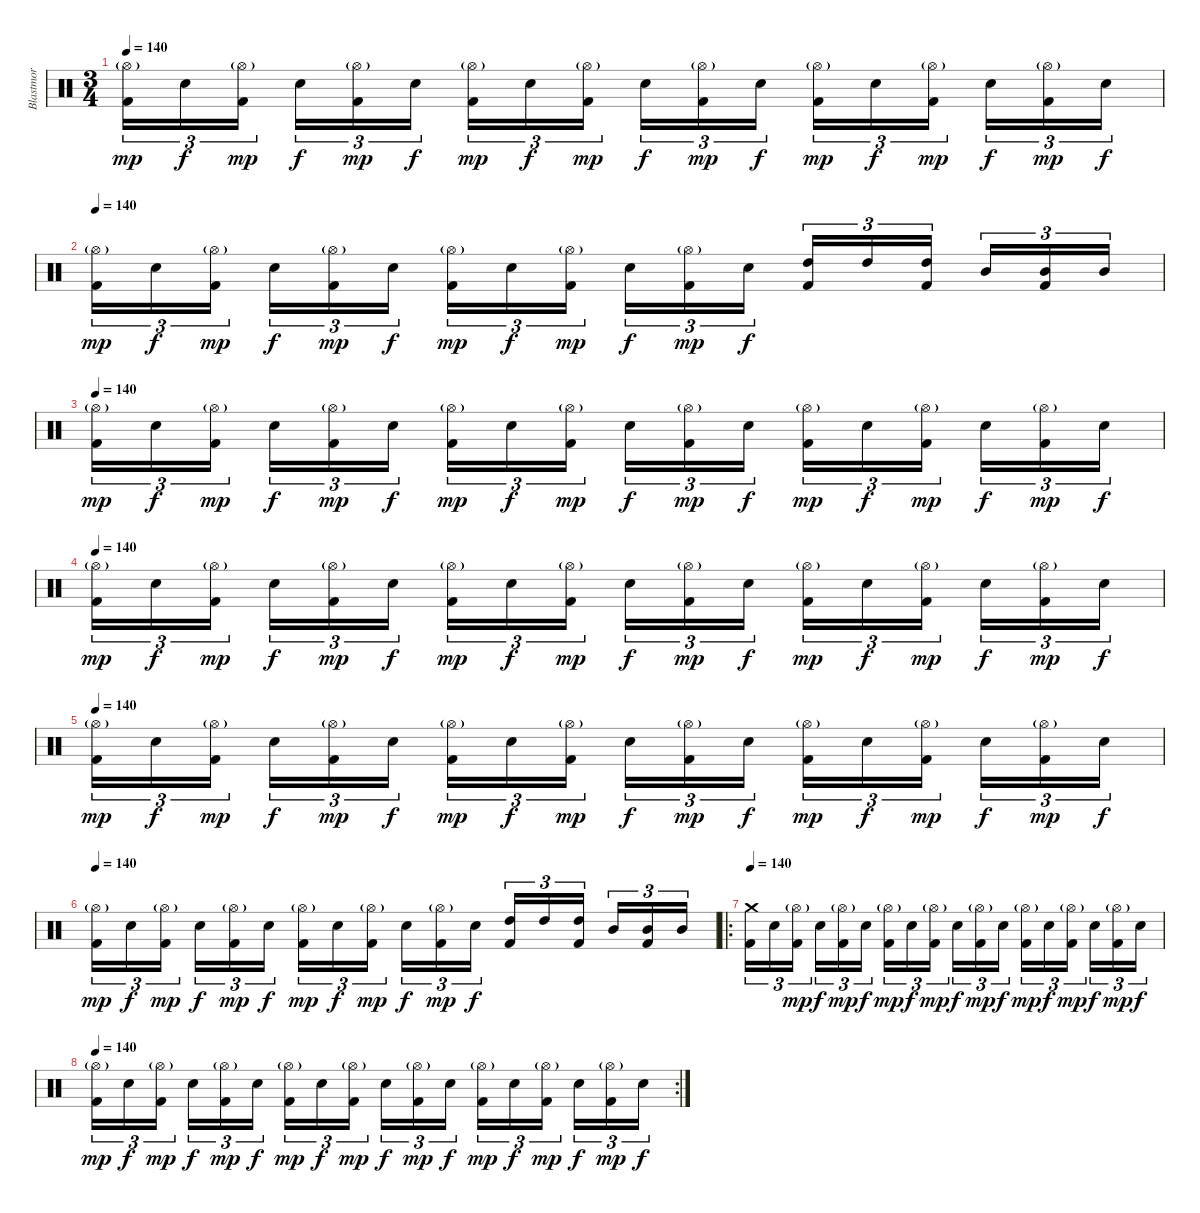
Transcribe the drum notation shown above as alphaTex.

\track ("Blastmor" "Blastmor") {instrument percussion}
\staff {score}
\articulation defaults
\ts (3 4)
\tempo 140
\clef neutral
\ks c
("Hi-Hat (open)"{g} "Kick (hit) 2").16{tu (3 2) dy mp} "Electric Snare (hit)".16{tu (3 2) dy f} ("Hi-Hat (open)"{g} "Kick (hit) 2").16{tu (3 2) dy mp} "Electric Snare (hit)".16{tu (3 2) dy f} ("Hi-Hat (open)"{g} "Kick (hit) 2").16{tu (3 2) dy mp} "Electric Snare (hit)".16{tu (3 2) dy f} ("Hi-Hat (open)"{g} "Kick (hit) 2").16{tu (3 2) dy mp} "Electric Snare (hit)".16{tu (3 2) dy f} ("Hi-Hat (open)"{g} "Kick (hit) 2").16{tu (3 2) dy mp} "Electric Snare (hit)".16{tu (3 2) dy f} ("Hi-Hat (open)"{g} "Kick (hit) 2").16{tu (3 2) dy mp} "Electric Snare (hit)".16{tu (3 2) dy f} ("Hi-Hat (open)"{g} "Kick (hit) 2").16{tu (3 2) dy mp} "Electric Snare (hit)".16{tu (3 2) dy f} ("Hi-Hat (open)"{g} "Kick (hit) 2").16{tu (3 2) dy mp} "Electric Snare (hit)".16{tu (3 2) dy f} ("Hi-Hat (open)"{g} "Kick (hit) 2").16{tu (3 2) dy mp} "Electric Snare (hit)".16{tu (3 2) dy f} |
\tempo 140
("Hi-Hat (open)"{g} "Kick (hit) 2").16{tu (3 2) dy mp} "Electric Snare (hit)".16{tu (3 2) dy f} ("Hi-Hat (open)"{g} "Kick (hit) 2").16{tu (3 2) dy mp} "Electric Snare (hit)".16{tu (3 2) dy f} ("Hi-Hat (open)"{g} "Kick (hit) 2").16{tu (3 2) dy mp} "Electric Snare (hit)".16{tu (3 2) dy f} ("Hi-Hat (open)"{g} "Kick (hit) 2").16{tu (3 2) dy mp} "Electric Snare (hit)".16{tu (3 2) dy f} ("Hi-Hat (open)"{g} "Kick (hit) 2").16{tu (3 2) dy mp} "Electric Snare (hit)".16{tu (3 2) dy f} ("Hi-Hat (open)"{g} "Kick (hit) 2").16{tu (3 2) dy mp} "Electric Snare (hit)".16{tu (3 2) dy f} ("High Tom (hit)" "Kick (hit) 2").16{tu (3 2)} "High Tom (hit)".16{tu (3 2)} ("High Tom (hit)" "Kick (hit) 2").16{tu (3 2)} "Mid Tom (hit)".16{tu (3 2)} ("Mid Tom (hit)" "Kick (hit) 2").16{tu (3 2)} "Mid Tom (hit)".16{tu (3 2)} |
\tempo 140
("Hi-Hat (open)"{g} "Kick (hit) 2").16{tu (3 2) dy mp} "Electric Snare (hit)".16{tu (3 2) dy f} ("Hi-Hat (open)"{g} "Kick (hit) 2").16{tu (3 2) dy mp} "Electric Snare (hit)".16{tu (3 2) dy f} ("Hi-Hat (open)"{g} "Kick (hit) 2").16{tu (3 2) dy mp} "Electric Snare (hit)".16{tu (3 2) dy f} ("Hi-Hat (open)"{g} "Kick (hit) 2").16{tu (3 2) dy mp} "Electric Snare (hit)".16{tu (3 2) dy f} ("Hi-Hat (open)"{g} "Kick (hit) 2").16{tu (3 2) dy mp} "Electric Snare (hit)".16{tu (3 2) dy f} ("Hi-Hat (open)"{g} "Kick (hit) 2").16{tu (3 2) dy mp} "Electric Snare (hit)".16{tu (3 2) dy f} ("Hi-Hat (open)"{g} "Kick (hit) 2").16{tu (3 2) dy mp} "Electric Snare (hit)".16{tu (3 2) dy f} ("Hi-Hat (open)"{g} "Kick (hit) 2").16{tu (3 2) dy mp} "Electric Snare (hit)".16{tu (3 2) dy f} ("Hi-Hat (open)"{g} "Kick (hit) 2").16{tu (3 2) dy mp} "Electric Snare (hit)".16{tu (3 2) dy f} |
\tempo 140
("Hi-Hat (open)"{g} "Kick (hit) 2").16{tu (3 2) dy mp} "Electric Snare (hit)".16{tu (3 2) dy f} ("Hi-Hat (open)"{g} "Kick (hit) 2").16{tu (3 2) dy mp} "Electric Snare (hit)".16{tu (3 2) dy f} ("Hi-Hat (open)"{g} "Kick (hit) 2").16{tu (3 2) dy mp} "Electric Snare (hit)".16{tu (3 2) dy f} ("Hi-Hat (open)"{g} "Kick (hit) 2").16{tu (3 2) dy mp} "Electric Snare (hit)".16{tu (3 2) dy f} ("Hi-Hat (open)"{g} "Kick (hit) 2").16{tu (3 2) dy mp} "Electric Snare (hit)".16{tu (3 2) dy f} ("Hi-Hat (open)"{g} "Kick (hit) 2").16{tu (3 2) dy mp} "Electric Snare (hit)".16{tu (3 2) dy f} ("Hi-Hat (open)"{g} "Kick (hit) 2").16{tu (3 2) dy mp} "Electric Snare (hit)".16{tu (3 2) dy f} ("Hi-Hat (open)"{g} "Kick (hit) 2").16{tu (3 2) dy mp} "Electric Snare (hit)".16{tu (3 2) dy f} ("Hi-Hat (open)"{g} "Kick (hit) 2").16{tu (3 2) dy mp} "Electric Snare (hit)".16{tu (3 2) dy f} |
\tempo 140
("Hi-Hat (open)"{g} "Kick (hit) 2").16{tu (3 2) dy mp} "Electric Snare (hit)".16{tu (3 2) dy f} ("Hi-Hat (open)"{g} "Kick (hit) 2").16{tu (3 2) dy mp} "Electric Snare (hit)".16{tu (3 2) dy f} ("Hi-Hat (open)"{g} "Kick (hit) 2").16{tu (3 2) dy mp} "Electric Snare (hit)".16{tu (3 2) dy f} ("Hi-Hat (open)"{g} "Kick (hit) 2").16{tu (3 2) dy mp} "Electric Snare (hit)".16{tu (3 2) dy f} ("Hi-Hat (open)"{g} "Kick (hit) 2").16{tu (3 2) dy mp} "Electric Snare (hit)".16{tu (3 2) dy f} ("Hi-Hat (open)"{g} "Kick (hit) 2").16{tu (3 2) dy mp} "Electric Snare (hit)".16{tu (3 2) dy f} ("Hi-Hat (open)"{g} "Kick (hit) 2").16{tu (3 2) dy mp} "Electric Snare (hit)".16{tu (3 2) dy f} ("Hi-Hat (open)"{g} "Kick (hit) 2").16{tu (3 2) dy mp} "Electric Snare (hit)".16{tu (3 2) dy f} ("Hi-Hat (open)"{g} "Kick (hit) 2").16{tu (3 2) dy mp} "Electric Snare (hit)".16{tu (3 2) dy f} |
\tempo 140
("Hi-Hat (open)"{g} "Kick (hit) 2").16{tu (3 2) dy mp} "Electric Snare (hit)".16{tu (3 2) dy f} ("Hi-Hat (open)"{g} "Kick (hit) 2").16{tu (3 2) dy mp} "Electric Snare (hit)".16{tu (3 2) dy f} ("Hi-Hat (open)"{g} "Kick (hit) 2").16{tu (3 2) dy mp} "Electric Snare (hit)".16{tu (3 2) dy f} ("Hi-Hat (open)"{g} "Kick (hit) 2").16{tu (3 2) dy mp} "Electric Snare (hit)".16{tu (3 2) dy f} ("Hi-Hat (open)"{g} "Kick (hit) 2").16{tu (3 2) dy mp} "Electric Snare (hit)".16{tu (3 2) dy f} ("Hi-Hat (open)"{g} "Kick (hit) 2").16{tu (3 2) dy mp} "Electric Snare (hit)".16{tu (3 2) dy f} ("High Tom (hit)" "Kick (hit) 2").16{tu (3 2)} "High Tom (hit)".16{tu (3 2)} ("High Tom (hit)" "Kick (hit) 2").16{tu (3 2)} "Mid Tom (hit)".16{tu (3 2)} ("Mid Tom (hit)" "Kick (hit) 2").16{tu (3 2)} "Mid Tom (hit)".16{tu (3 2)} |
\ro
\tempo 140
("Crash medium (hit)" "Kick (hit) 2").16{tu (3 2)} "Electric Snare (hit)".16{tu (3 2)} ("Hi-Hat (open)"{g} "Kick (hit) 2").16{tu (3 2) dy mp} "Electric Snare (hit)".16{tu (3 2) dy f} ("Hi-Hat (open)"{g} "Kick (hit) 2").16{tu (3 2) dy mp} "Electric Snare (hit)".16{tu (3 2) dy f} ("Hi-Hat (open)"{g} "Kick (hit) 2").16{tu (3 2) dy mp} "Electric Snare (hit)".16{tu (3 2) dy f} ("Hi-Hat (open)"{g} "Kick (hit) 2").16{tu (3 2) dy mp} "Electric Snare (hit)".16{tu (3 2) dy f} ("Hi-Hat (open)"{g} "Kick (hit) 2").16{tu (3 2) dy mp} "Electric Snare (hit)".16{tu (3 2) dy f} ("Hi-Hat (open)"{g} "Kick (hit) 2").16{tu (3 2) dy mp} "Electric Snare (hit)".16{tu (3 2) dy f} ("Hi-Hat (open)"{g} "Kick (hit) 2").16{tu (3 2) dy mp} "Electric Snare (hit)".16{tu (3 2) dy f} ("Hi-Hat (open)"{g} "Kick (hit) 2").16{tu (3 2) dy mp} "Electric Snare (hit)".16{tu (3 2) dy f} |
\rc 2
\tempo 140
("Hi-Hat (open)"{g} "Kick (hit) 2").16{tu (3 2) dy mp} "Electric Snare (hit)".16{tu (3 2) dy f} ("Hi-Hat (open)"{g} "Kick (hit) 2").16{tu (3 2) dy mp} "Electric Snare (hit)".16{tu (3 2) dy f} ("Hi-Hat (open)"{g} "Kick (hit) 2").16{tu (3 2) dy mp} "Electric Snare (hit)".16{tu (3 2) dy f} ("Hi-Hat (open)"{g} "Kick (hit) 2").16{tu (3 2) dy mp} "Electric Snare (hit)".16{tu (3 2) dy f} ("Hi-Hat (open)"{g} "Kick (hit) 2").16{tu (3 2) dy mp} "Electric Snare (hit)".16{tu (3 2) dy f} ("Hi-Hat (open)"{g} "Kick (hit) 2").16{tu (3 2) dy mp} "Electric Snare (hit)".16{tu (3 2) dy f} ("Hi-Hat (open)"{g} "Kick (hit) 2").16{tu (3 2) dy mp} "Electric Snare (hit)".16{tu (3 2) dy f} ("Hi-Hat (open)"{g} "Kick (hit) 2").16{tu (3 2) dy mp} "Electric Snare (hit)".16{tu (3 2) dy f} ("Hi-Hat (open)"{g} "Kick (hit) 2").16{tu (3 2) dy mp} "Electric Snare (hit)".16{tu (3 2) dy f}
